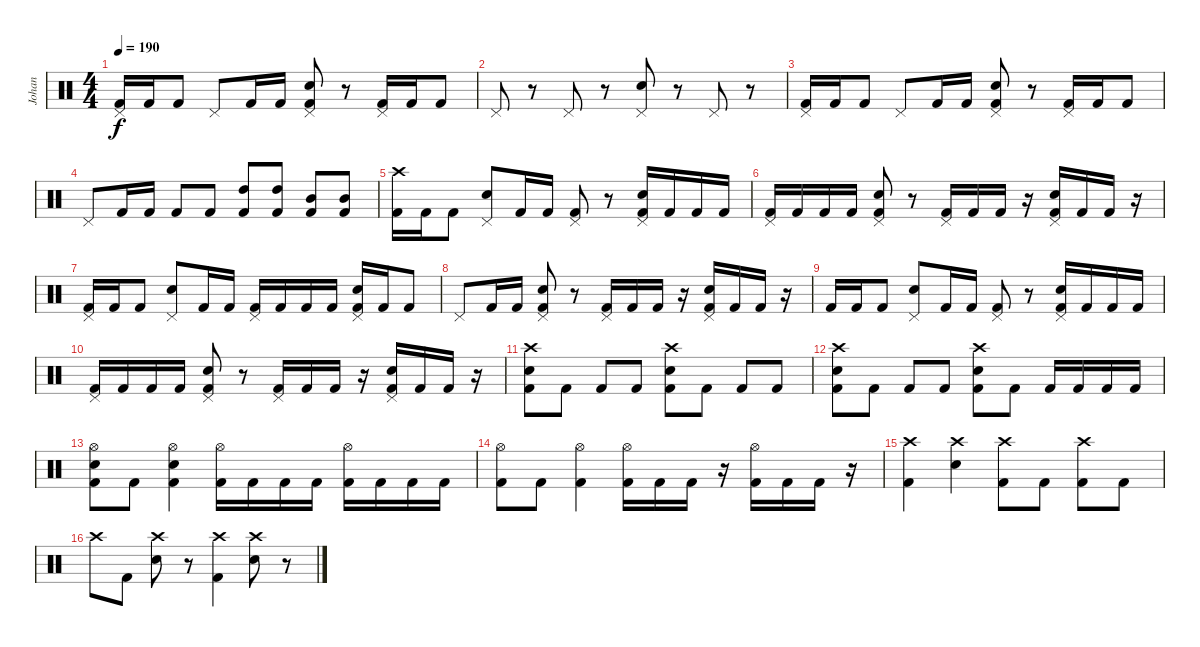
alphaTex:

\track ("Johan" "Johan") {instrument percussion}
\staff {score}
\articulation defaults
\ts (4 4)
\tempo 190
\clef neutral
\ks c
("Pedal Hi-Hat (hit)" "Kick (hit) 2").16{dy f} "Kick (hit) 2".16 "Kick (hit) 2".8 "Pedal Hi-Hat (hit)".8 "Kick (hit) 2".16 "Kick (hit) 2".16 ("Electric Snare (hit)" "Pedal Hi-Hat (hit)" "Kick (hit) 2").8 r.8 ("Pedal Hi-Hat (hit)" "Kick (hit) 2").16 "Kick (hit) 2".16 "Kick (hit) 2".8 |
"Pedal Hi-Hat (hit)".8 r.8 "Pedal Hi-Hat (hit)".8 r.8 ("Electric Snare (hit)" "Pedal Hi-Hat (hit)").8 r.8 "Pedal Hi-Hat (hit)".8 r.8 |
("Pedal Hi-Hat (hit)" "Kick (hit) 2").16 "Kick (hit) 2".16 "Kick (hit) 2".8 "Pedal Hi-Hat (hit)".8 "Kick (hit) 2".16 "Kick (hit) 2".16 ("Electric Snare (hit)" "Pedal Hi-Hat (hit)" "Kick (hit) 2").8 r.8 ("Pedal Hi-Hat (hit)" "Kick (hit) 2").16 "Kick (hit) 2".16 "Kick (hit) 2".8 |
"Pedal Hi-Hat (hit)".8 "Kick (hit) 2".16 "Kick (hit) 2".16 "Kick (hit) 2".8 "Kick (hit) 2".8 ("High Tom (hit)" "Kick (hit) 2").8 ("High Tom (hit)" "Kick (hit) 2").8 ("Mid Tom (hit)" "Kick (hit) 2").8 ("Mid Tom (hit)" "Kick (hit) 2").8 |
("Crash high (hit)" "Kick (hit) 2").16 "Kick (hit) 2".16 "Kick (hit) 2".8 ("Electric Snare (hit)" "Pedal Hi-Hat (hit)").8 "Kick (hit) 2".16 "Kick (hit) 2".16 ("Pedal Hi-Hat (hit)" "Kick (hit) 2").8 r.8 ("Electric Snare (hit)" "Pedal Hi-Hat (hit)" "Kick (hit) 2").16 "Kick (hit) 2".16 "Kick (hit) 2".16 "Kick (hit) 2".16 |
("Pedal Hi-Hat (hit)" "Kick (hit) 2").16 "Kick (hit) 2".16 "Kick (hit) 2".16 "Kick (hit) 2".16 ("Electric Snare (hit)" "Pedal Hi-Hat (hit)" "Kick (hit) 2").8 r.8 ("Pedal Hi-Hat (hit)" "Kick (hit) 2").16 "Kick (hit) 2".16 "Kick (hit) 2".16 r.16 ("Electric Snare (hit)" "Pedal Hi-Hat (hit)" "Kick (hit) 2").16 "Kick (hit) 2".16 "Kick (hit) 2".16 r.16 |
("Pedal Hi-Hat (hit)" "Kick (hit) 2").16 "Kick (hit) 2".16 "Kick (hit) 2".8 ("Electric Snare (hit)" "Pedal Hi-Hat (hit)").8 "Kick (hit) 2".16 "Kick (hit) 2".16 ("Pedal Hi-Hat (hit)" "Kick (hit) 2").16 "Kick (hit) 2".16 "Kick (hit) 2".16 "Kick (hit) 2".16 ("Electric Snare (hit)" "Pedal Hi-Hat (hit)" "Kick (hit) 2").16 "Kick (hit) 2".16 "Kick (hit) 2".8 |
"Pedal Hi-Hat (hit)".8 "Kick (hit) 2".16 "Kick (hit) 2".16 ("Electric Snare (hit)" "Pedal Hi-Hat (hit)" "Kick (hit) 2").8 r.8 ("Pedal Hi-Hat (hit)" "Kick (hit) 2").16 "Kick (hit) 2".16 "Kick (hit) 2".16 r.16 ("Electric Snare (hit)" "Pedal Hi-Hat (hit)" "Kick (hit) 2").16 "Kick (hit) 2".16 "Kick (hit) 2".16 r.16 |
"Kick (hit) 2".16 "Kick (hit) 2".16 "Kick (hit) 2".8 ("Electric Snare (hit)" "Pedal Hi-Hat (hit)").8 "Kick (hit) 2".16 "Kick (hit) 2".16 ("Pedal Hi-Hat (hit)" "Kick (hit) 2").8 r.8 ("Electric Snare (hit)" "Pedal Hi-Hat (hit)" "Kick (hit) 2").16 "Kick (hit) 2".16 "Kick (hit) 2".16 "Kick (hit) 2".16 |
("Pedal Hi-Hat (hit)" "Kick (hit) 2").16 "Kick (hit) 2".16 "Kick (hit) 2".16 "Kick (hit) 2".16 ("Electric Snare (hit)" "Pedal Hi-Hat (hit)" "Kick (hit) 2").8 r.8 ("Pedal Hi-Hat (hit)" "Kick (hit) 2").16 "Kick (hit) 2".16 "Kick (hit) 2".16 r.16 ("Electric Snare (hit)" "Pedal Hi-Hat (hit)" "Kick (hit) 2").16 "Kick (hit) 2".16 "Kick (hit) 2".16 r.16 |
("Electric Snare (hit)" "Crash high (hit)" "Kick (hit) 2").8 "Kick (hit) 2".8 "Kick (hit) 2".8 "Kick (hit) 2".8 ("Electric Snare (hit)" "Crash high (hit)" "Kick (hit) 2").8 "Kick (hit) 2".8 "Kick (hit) 2".8 "Kick (hit) 2".8 |
("Electric Snare (hit)" "Crash high (hit)" "Kick (hit) 2").8 "Kick (hit) 2".8 "Kick (hit) 2".8 "Kick (hit) 2".8 ("Electric Snare (hit)" "Crash high (hit)" "Kick (hit) 2").8 "Kick (hit) 2".8 "Kick (hit) 2".16 "Kick (hit) 2".16 "Kick (hit) 2".16 "Kick (hit) 2".16 |
("Electric Snare (hit)" "Hi-Hat (open)" "Kick (hit) 2").8 "Kick (hit) 2".8 ("Electric Snare (hit)" "Hi-Hat (open)" "Kick (hit) 2").4 ("Hi-Hat (open)" "Kick (hit) 2").16 "Kick (hit) 2".16 "Kick (hit) 2".16 "Kick (hit) 2".16 ("Hi-Hat (open)" "Kick (hit) 2").16 "Kick (hit) 2".16 "Kick (hit) 2".16 "Kick (hit) 2".16 |
("Hi-Hat (open)" "Kick (hit) 2").8 "Kick (hit) 2".8 ("Hi-Hat (open)" "Kick (hit) 2").4 ("Hi-Hat (open)" "Kick (hit) 2").16 "Kick (hit) 2".16 "Kick (hit) 2".16 r.16 ("Hi-Hat (open)" "Kick (hit) 2").16 "Kick (hit) 2".16 "Kick (hit) 2".16 r.16 |
("Crash high (hit)" "Kick (hit) 2").4 ("Electric Snare (hit)" "Crash high (hit)").4 ("Crash high (hit)" "Kick (hit) 2").8 "Kick (hit) 2".8 ("Crash high (hit)" "Kick (hit) 2").8 "Kick (hit) 2".8 |
"Crash high (hit)".8 "Kick (hit) 2".8 ("Electric Snare (hit)" "Crash high (hit)").8 r.8 ("Crash high (hit)" "Kick (hit) 2").4 ("Electric Snare (hit)" "Crash high (hit)").8 r.8
